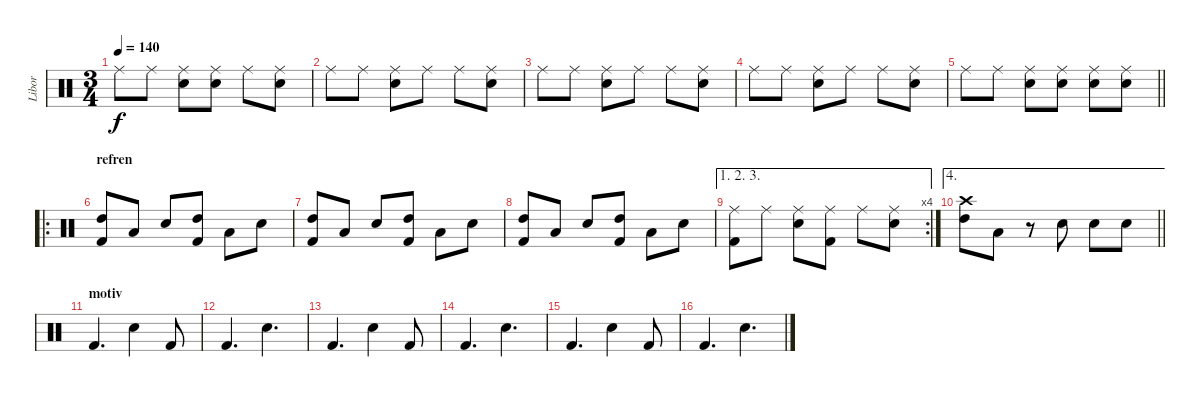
\track ("Libor" "Libor") {instrument percussion}
\staff {score}
\articulation defaults
\ts (3 4)
\tempo 140
\clef neutral
\ks c "Ride (middle)".8{dy f} "Ride (middle)".8
("Ride (middle)" "Snare (hit) 2").8 ("Ride (middle)" "Snare (hit) 2").8 "Ride (middle)".8 ("Ride (middle)" "Snare (hit) 2").8 |
"Ride (middle)".8 "Ride (middle)".8 ("Ride (middle)" "Snare (hit) 2").8 "Ride (middle)".8 "Ride (middle)".8 ("Ride (middle)" "Snare (hit) 2").8 |
"Ride (middle)".8 "Ride (middle)".8 ("Ride (middle)" "Snare (hit) 2").8 "Ride (middle)".8 "Ride (middle)".8 ("Ride (middle)" "Snare (hit) 2").8 |
"Ride (middle)".8 "Ride (middle)".8 ("Ride (middle)" "Snare (hit) 2").8 "Ride (middle)".8 "Ride (middle)".8 ("Ride (middle)" "Snare (hit) 2").8 |
\barLineRight lightlight "Ride (middle)".8 "Ride (middle)".8
("Ride (middle)" "Snare (hit) 2").8 ("Ride (middle)" "Snare (hit) 2").8 ("Ride (middle)" "Snare (hit) 2").8 ("Ride (middle)" "Snare (hit) 2").8 |
\ro
\section ("" "refren")
("High Tom (hit)" "Kick (hit) 2").8 "Low Tom (hit)".8 "Snare (hit) 2".8 ("High Tom (hit)" "Kick (hit) 2").8 "Low Tom (hit)".8 "Snare (hit) 2".8 |
("High Tom (hit)" "Kick (hit) 2").8 "Low Tom (hit)".8 "Snare (hit) 2".8 ("High Tom (hit)" "Kick (hit) 2").8 "Low Tom (hit)".8 "Snare (hit) 2".8 |
("High Tom (hit)" "Kick (hit) 2").8 "Low Tom (hit)".8 "Snare (hit) 2".8 ("High Tom (hit)" "Kick (hit) 2").8 "Low Tom (hit)".8 "Snare (hit) 2".8 |
\ae (1 2 3)
\rc 4
("Kick (hit) 2" "Ride (middle)").8 "Ride (middle)".8 ("Snare (hit) 2" "Ride (middle)").8 ("Kick (hit) 2" "Ride (middle)").8 "Ride (middle)".8 ("Snare (hit) 2" "Ride (middle)").8 |
\ae 4
\barLineRight lightlight
("Crash high (hit)" "High Tom (hit)").8 "Low Tom (hit)".8 r.8 "Snare (hit) 2".8 "Snare (hit) 2".8 "Snare (hit) 2".8 |
\section ("" "motiv")
"Kick (hit) 2".4{d} "Snare (hit) 2".4 "Kick (hit) 2".8 |
"Kick (hit) 2".4{d} "Snare (hit) 2".4{d} |
"Kick (hit) 2".4{d} "Snare (hit) 2".4 "Kick (hit) 2".8 |
"Kick (hit) 2".4{d} "Snare (hit) 2".4{d} |
"Kick (hit) 2".4{d} "Snare (hit) 2".4 "Kick (hit) 2".8 |
"Kick (hit) 2".4{d} "Snare (hit) 2".4{d}
